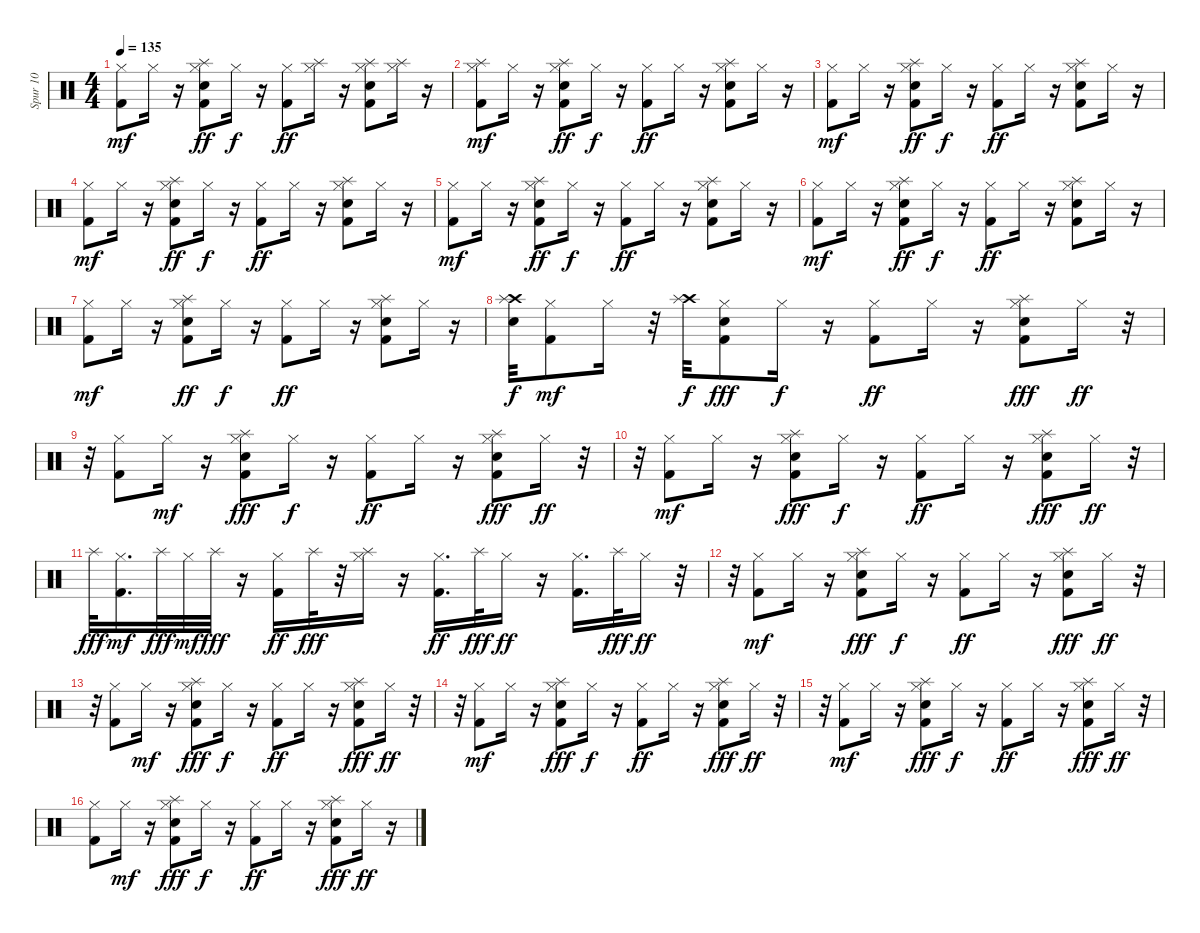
\track ("Spur 10" "Spur 10") {instrument percussion}
\staff {score}
\articulation defaults
\ts (4 4)
\tempo 135
\clef neutral
\ks c
("Kick (hit) 2" "Hi-Hat (closed)").8{dy mf} "Hi-Hat (closed)".16 r.16 ("Splash (hit)" "Snare (hit) 2" "Kick (hit) 2" "Hi-Hat (closed)").8{dy ff} "Hi-Hat (closed)".16{dy f} r.16 ("Kick (hit) 2" "Hi-Hat (closed)").8{dy ff} ("Splash (hit)" "Hi-Hat (closed)").16 r.16 ("Splash (hit)" "Snare (hit) 2" "Kick (hit) 2" "Hi-Hat (closed)").8 ("Splash (hit)" "Hi-Hat (closed)").16 r.16 |
("Splash (hit)" "Kick (hit) 2" "Hi-Hat (closed)").8{dy mf} "Hi-Hat (closed)".16 r.16 ("Splash (hit)" "Snare (hit) 2" "Kick (hit) 2" "Hi-Hat (closed)").8{dy ff} "Hi-Hat (closed)".16{dy f} r.16 ("Kick (hit) 2" "Hi-Hat (closed)").8{dy ff} "Hi-Hat (closed)".16 r.16 ("Splash (hit)" "Snare (hit) 2" "Kick (hit) 2" "Hi-Hat (closed)").8 "Hi-Hat (closed)".16 r.16 |
("Kick (hit) 2" "Hi-Hat (closed)").8{dy mf} "Hi-Hat (closed)".16 r.16 ("Splash (hit)" "Snare (hit) 2" "Kick (hit) 2" "Hi-Hat (closed)").8{dy ff} "Hi-Hat (closed)".16{dy f} r.16 ("Kick (hit) 2" "Hi-Hat (closed)").8{dy ff} "Hi-Hat (closed)".16 r.16 ("Splash (hit)" "Snare (hit) 2" "Kick (hit) 2" "Hi-Hat (closed)").8 "Hi-Hat (closed)".16 r.16 |
("Kick (hit) 2" "Hi-Hat (closed)").8{dy mf} "Hi-Hat (closed)".16 r.16 ("Splash (hit)" "Snare (hit) 2" "Kick (hit) 2" "Hi-Hat (closed)").8{dy ff} "Hi-Hat (closed)".16{dy f} r.16 ("Kick (hit) 2" "Hi-Hat (closed)").8{dy ff} "Hi-Hat (closed)".16 r.16 ("Splash (hit)" "Snare (hit) 2" "Kick (hit) 2" "Hi-Hat (closed)").8 "Hi-Hat (closed)".16 r.16 |
("Kick (hit) 2" "Hi-Hat (closed)").8{dy mf} "Hi-Hat (closed)".16 r.16 ("Splash (hit)" "Snare (hit) 2" "Kick (hit) 2" "Hi-Hat (closed)").8{dy ff} "Hi-Hat (closed)".16{dy f} r.16 ("Kick (hit) 2" "Hi-Hat (closed)").8{dy ff} "Hi-Hat (closed)".16 r.16 ("Splash (hit)" "Snare (hit) 2" "Kick (hit) 2" "Hi-Hat (closed)").8 "Hi-Hat (closed)".16 r.16 |
("Kick (hit) 2" "Hi-Hat (closed)").8{dy mf} "Hi-Hat (closed)".16 r.16 ("Splash (hit)" "Snare (hit) 2" "Kick (hit) 2" "Hi-Hat (closed)").8{dy ff} "Hi-Hat (closed)".16{dy f} r.16 ("Kick (hit) 2" "Hi-Hat (closed)").8{dy ff} "Hi-Hat (closed)".16 r.16 ("Splash (hit)" "Snare (hit) 2" "Kick (hit) 2" "Hi-Hat (closed)").8 "Hi-Hat (closed)".16 r.16 |
("Kick (hit) 2" "Hi-Hat (closed)").8{dy mf} "Hi-Hat (closed)".16 r.16 ("Splash (hit)" "Snare (hit) 2" "Kick (hit) 2" "Hi-Hat (closed)").8{dy ff} "Hi-Hat (closed)".16{dy f} r.16 ("Kick (hit) 2" "Hi-Hat (closed)").8{dy ff} "Hi-Hat (closed)".16 r.16 ("Splash (hit)" "Snare (hit) 2" "Kick (hit) 2" "Hi-Hat (closed)").8 "Hi-Hat (closed)".16 r.16 |
("Crash high (hit)" "Snare (hit) 2" "Splash (hit)").32{dy f} ("Kick (hit) 2" "Hi-Hat (closed)").8{dy mf} "Hi-Hat (closed)".16 r.32 ("Crash high (hit)" "Splash (hit)").32{dy f} ("Kick (hit) 2" "Hi-Hat (closed)" "Snare (hit) 2").8{dy fff} "Hi-Hat (closed)".16{dy f} r.16 ("Kick (hit) 2" "Hi-Hat (closed)").8{dy ff} "Hi-Hat (closed)".16 r.16 ("Kick (hit) 2" "Hi-Hat (closed)" "Splash (hit)" "Snare (hit) 2").8{dy fff} "Hi-Hat (closed)".16{dy ff} r.32 |
r.32 ("Hi-Hat (closed)" "Kick (hit) 2").8 "Hi-Hat (closed)".16{dy mf} r.16 ("Hi-Hat (closed)" "Kick (hit) 2" "Snare (hit) 2" "Splash (hit)").8{dy fff} "Hi-Hat (closed)".16{dy f} r.16 ("Hi-Hat (closed)" "Kick (hit) 2").8{dy ff} "Hi-Hat (closed)".16 r.16 ("Hi-Hat (closed)" "Kick (hit) 2" "Snare (hit) 2" "Splash (hit)").8{dy fff} "Hi-Hat (closed)".16{dy ff} r.32 |
r.32 ("Kick (hit) 2" "Hi-Hat (closed)").8{dy mf} "Hi-Hat (closed)".16 r.16 ("Kick (hit) 2" "Hi-Hat (closed)" "Snare (hit) 2" "Splash (hit)").8{dy fff} "Hi-Hat (closed)".16{dy f} r.16 ("Kick (hit) 2" "Hi-Hat (closed)").8{dy ff} "Hi-Hat (closed)".16 r.16 ("Kick (hit) 2" "Hi-Hat (closed)" "Snare (hit) 2" "Splash (hit)").8{dy fff} "Hi-Hat (closed)".16{dy ff} r.32 |
"Splash (hit)".32{dy fff} ("Kick (hit) 2" "Hi-Hat (closed)").16{d dy mf} "Splash (hit)".32{dy fff} "Hi-Hat (closed)".32{dy mf} "Splash (hit)".32{dy fff} r.16 ("Kick (hit) 2" "Hi-Hat (closed)").16{dy ff} "Splash (hit)".32{dy fff} r.32 ("Hi-Hat (closed)" "Splash (hit)").16 r.16 ("Kick (hit) 2" "Hi-Hat (closed)").16{d dy ff} "Splash (hit)".32{dy fff} "Hi-Hat (closed)".16{dy ff} r.16 ("Kick (hit) 2" "Hi-Hat (closed)").16{d} "Splash (hit)".32{dy fff} "Hi-Hat (closed)".16{dy ff} r.32 |
r.32 ("Kick (hit) 2" "Hi-Hat (closed)").8{dy mf} "Hi-Hat (closed)".16 r.16 ("Kick (hit) 2" "Hi-Hat (closed)" "Splash (hit)" "Snare (hit) 2").8{dy fff} "Hi-Hat (closed)".16{dy f} r.16 ("Kick (hit) 2" "Hi-Hat (closed)").8{dy ff} "Hi-Hat (closed)".16 r.16 ("Kick (hit) 2" "Hi-Hat (closed)" "Splash (hit)" "Snare (hit) 2").8{dy fff} "Hi-Hat (closed)".16{dy ff} r.32 |
r.32 ("Hi-Hat (closed)" "Kick (hit) 2").8 "Hi-Hat (closed)".16{dy mf} r.16 ("Hi-Hat (closed)" "Kick (hit) 2" "Splash (hit)" "Snare (hit) 2").8{dy fff} "Hi-Hat (closed)".16{dy f} r.16 ("Hi-Hat (closed)" "Kick (hit) 2").8{dy ff} "Hi-Hat (closed)".16 r.16 ("Hi-Hat (closed)" "Kick (hit) 2" "Splash (hit)" "Snare (hit) 2").8{dy fff} "Hi-Hat (closed)".16{dy ff} r.32 |
r.32 ("Kick (hit) 2" "Hi-Hat (closed)").8{dy mf} "Hi-Hat (closed)".16 r.16 ("Kick (hit) 2" "Hi-Hat (closed)" "Snare (hit) 2" "Splash (hit)").8{dy fff} "Hi-Hat (closed)".16{dy f} r.16 ("Kick (hit) 2" "Hi-Hat (closed)").8{dy ff} "Hi-Hat (closed)".16 r.16 ("Kick (hit) 2" "Hi-Hat (closed)" "Snare (hit) 2" "Splash (hit)").8{dy fff} "Hi-Hat (closed)".16{dy ff} r.32 |
r.32 ("Kick (hit) 2" "Hi-Hat (closed)").8{dy mf} "Hi-Hat (closed)".16 r.16 ("Kick (hit) 2" "Hi-Hat (closed)" "Splash (hit)" "Snare (hit) 2").8{dy fff} "Hi-Hat (closed)".16{dy f} r.16 ("Kick (hit) 2" "Hi-Hat (closed)").8{dy ff} "Hi-Hat (closed)".16 r.16 ("Kick (hit) 2" "Hi-Hat (closed)" "Splash (hit)" "Snare (hit) 2").8{dy fff} "Hi-Hat (closed)".16{dy ff} r.32 |
("Hi-Hat (closed)" "Kick (hit) 2").8 "Hi-Hat (closed)".16{dy mf} r.16 ("Kick (hit) 2" "Hi-Hat (closed)" "Splash (hit)" "Snare (hit) 2").8{dy fff} "Hi-Hat (closed)".16{dy f} r.16 ("Hi-Hat (closed)" "Kick (hit) 2").8{dy ff} "Hi-Hat (closed)".16 r.16 ("Hi-Hat (closed)" "Kick (hit) 2" "Splash (hit)" "Snare (hit) 2").8{dy fff} "Hi-Hat (closed)".16{dy ff} r.16
